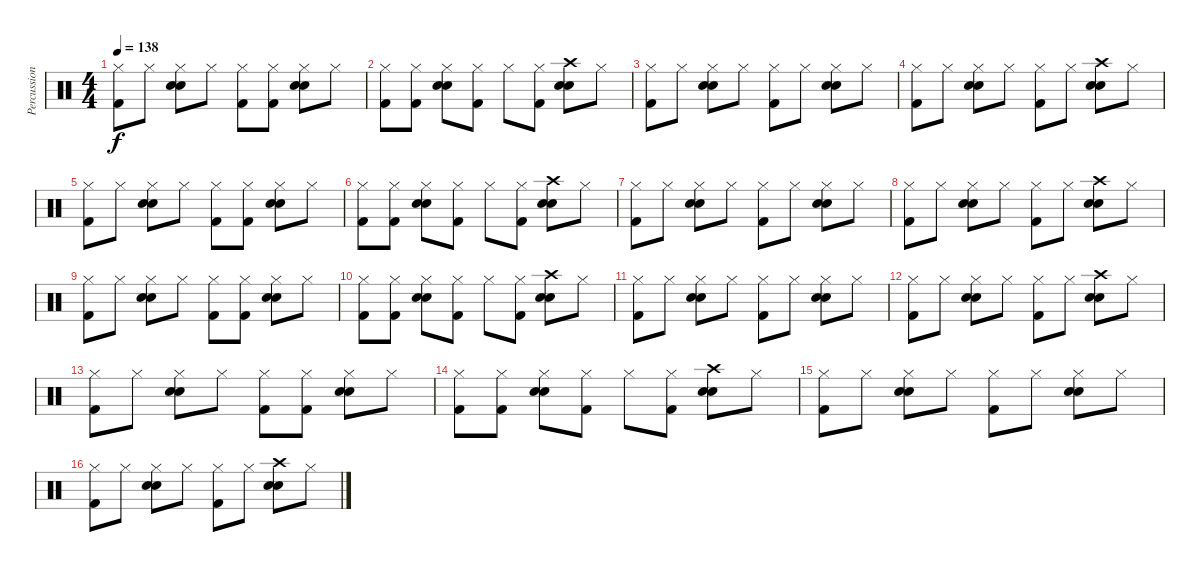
\track ("Percussions" "Percussion") {instrument percussion}
\staff {score}
\articulation defaults
\ts (4 4)
\tempo 138
\clef neutral
\ks c
("Hi-Hat (closed)" "Kick (hit) 2").8{dy f} "Hi-Hat (closed)".8 ("Hi-Hat (closed)" "Snare (hit) 2" "Electric Snare (hit)").8 "Hi-Hat (closed)".8 ("Hi-Hat (closed)" "Kick (hit) 2").8 ("Hi-Hat (closed)" "Kick (hit) 2").8 ("Hi-Hat (closed)" "Snare (hit) 2" "Electric Snare (hit)").8 "Hi-Hat (closed)".8 |
("Hi-Hat (closed)" "Kick (hit) 2").8 ("Hi-Hat (closed)" "Kick (hit) 2").8 ("Hi-Hat (closed)" "Snare (hit) 2" "Electric Snare (hit)").8 ("Hi-Hat (closed)" "Kick (hit) 2").8 "Hi-Hat (closed)".8 ("Hi-Hat (closed)" "Kick (hit) 2").8 ("Crash high (hit)" "Snare (hit) 2" "Electric Snare (hit)").8 "Hi-Hat (closed)".8 |
("Hi-Hat (closed)" "Kick (hit) 2").8 "Hi-Hat (closed)".8 ("Hi-Hat (closed)" "Snare (hit) 2" "Electric Snare (hit)").8 "Hi-Hat (closed)".8 ("Hi-Hat (closed)" "Kick (hit) 2").8 "Hi-Hat (closed)".8 ("Hi-Hat (closed)" "Snare (hit) 2" "Electric Snare (hit)").8 "Hi-Hat (closed)".8 |
("Hi-Hat (closed)" "Kick (hit) 2").8 "Hi-Hat (closed)".8 ("Hi-Hat (closed)" "Snare (hit) 2" "Electric Snare (hit)").8 "Hi-Hat (closed)".8 ("Hi-Hat (closed)" "Kick (hit) 2").8 "Hi-Hat (closed)".8 ("Crash high (hit)" "Snare (hit) 2" "Electric Snare (hit)").8 "Hi-Hat (closed)".8 |
("Hi-Hat (closed)" "Kick (hit) 2").8 "Hi-Hat (closed)".8 ("Hi-Hat (closed)" "Snare (hit) 2" "Electric Snare (hit)").8 "Hi-Hat (closed)".8 ("Hi-Hat (closed)" "Kick (hit) 2").8 ("Hi-Hat (closed)" "Kick (hit) 2").8 ("Hi-Hat (closed)" "Snare (hit) 2" "Electric Snare (hit)").8 "Hi-Hat (closed)".8 |
("Hi-Hat (closed)" "Kick (hit) 2").8 ("Hi-Hat (closed)" "Kick (hit) 2").8 ("Hi-Hat (closed)" "Snare (hit) 2" "Electric Snare (hit)").8 ("Hi-Hat (closed)" "Kick (hit) 2").8 "Hi-Hat (closed)".8 ("Hi-Hat (closed)" "Kick (hit) 2").8 ("Crash high (hit)" "Snare (hit) 2" "Electric Snare (hit)").8 "Hi-Hat (closed)".8 |
("Hi-Hat (closed)" "Kick (hit) 2").8 "Hi-Hat (closed)".8 ("Hi-Hat (closed)" "Snare (hit) 2" "Electric Snare (hit)").8 "Hi-Hat (closed)".8 ("Hi-Hat (closed)" "Kick (hit) 2").8 "Hi-Hat (closed)".8 ("Hi-Hat (closed)" "Snare (hit) 2" "Electric Snare (hit)").8 "Hi-Hat (closed)".8 |
("Hi-Hat (closed)" "Kick (hit) 2").8 "Hi-Hat (closed)".8 ("Hi-Hat (closed)" "Snare (hit) 2" "Electric Snare (hit)").8 "Hi-Hat (closed)".8 ("Hi-Hat (closed)" "Kick (hit) 2").8 "Hi-Hat (closed)".8 ("Crash high (hit)" "Snare (hit) 2" "Electric Snare (hit)").8 "Hi-Hat (closed)".8 |
("Hi-Hat (closed)" "Kick (hit) 2").8 "Hi-Hat (closed)".8 ("Hi-Hat (closed)" "Snare (hit) 2" "Electric Snare (hit)").8 "Hi-Hat (closed)".8 ("Hi-Hat (closed)" "Kick (hit) 2").8 ("Hi-Hat (closed)" "Kick (hit) 2").8 ("Hi-Hat (closed)" "Snare (hit) 2" "Electric Snare (hit)").8 "Hi-Hat (closed)".8 |
("Hi-Hat (closed)" "Kick (hit) 2").8 ("Hi-Hat (closed)" "Kick (hit) 2").8 ("Hi-Hat (closed)" "Snare (hit) 2" "Electric Snare (hit)").8 ("Hi-Hat (closed)" "Kick (hit) 2").8 "Hi-Hat (closed)".8 ("Hi-Hat (closed)" "Kick (hit) 2").8 ("Crash high (hit)" "Snare (hit) 2" "Electric Snare (hit)").8 "Hi-Hat (closed)".8 |
("Hi-Hat (closed)" "Kick (hit) 2").8 "Hi-Hat (closed)".8 ("Hi-Hat (closed)" "Snare (hit) 2" "Electric Snare (hit)").8 "Hi-Hat (closed)".8 ("Hi-Hat (closed)" "Kick (hit) 2").8 "Hi-Hat (closed)".8 ("Hi-Hat (closed)" "Snare (hit) 2" "Electric Snare (hit)").8 "Hi-Hat (closed)".8 |
("Hi-Hat (closed)" "Kick (hit) 2").8 "Hi-Hat (closed)".8 ("Hi-Hat (closed)" "Snare (hit) 2" "Electric Snare (hit)").8 "Hi-Hat (closed)".8 ("Hi-Hat (closed)" "Kick (hit) 2").8 "Hi-Hat (closed)".8 ("Crash high (hit)" "Snare (hit) 2" "Electric Snare (hit)").8 "Hi-Hat (closed)".8 |
("Hi-Hat (closed)" "Kick (hit) 2").8 "Hi-Hat (closed)".8 ("Hi-Hat (closed)" "Snare (hit) 2" "Electric Snare (hit)").8 "Hi-Hat (closed)".8 ("Hi-Hat (closed)" "Kick (hit) 2").8 ("Hi-Hat (closed)" "Kick (hit) 2").8 ("Hi-Hat (closed)" "Snare (hit) 2" "Electric Snare (hit)").8 "Hi-Hat (closed)".8 |
("Hi-Hat (closed)" "Kick (hit) 2").8 ("Hi-Hat (closed)" "Kick (hit) 2").8 ("Hi-Hat (closed)" "Snare (hit) 2" "Electric Snare (hit)").8 ("Hi-Hat (closed)" "Kick (hit) 2").8 "Hi-Hat (closed)".8 ("Hi-Hat (closed)" "Kick (hit) 2").8 ("Crash high (hit)" "Snare (hit) 2" "Electric Snare (hit)").8 "Hi-Hat (closed)".8 |
("Hi-Hat (closed)" "Kick (hit) 2").8 "Hi-Hat (closed)".8 ("Hi-Hat (closed)" "Snare (hit) 2" "Electric Snare (hit)").8 "Hi-Hat (closed)".8 ("Hi-Hat (closed)" "Kick (hit) 2").8 "Hi-Hat (closed)".8 ("Hi-Hat (closed)" "Snare (hit) 2" "Electric Snare (hit)").8 "Hi-Hat (closed)".8 |
("Hi-Hat (closed)" "Kick (hit) 2").8 "Hi-Hat (closed)".8 ("Hi-Hat (closed)" "Snare (hit) 2" "Electric Snare (hit)").8 "Hi-Hat (closed)".8 ("Hi-Hat (closed)" "Kick (hit) 2").8 "Hi-Hat (closed)".8 ("Crash high (hit)" "Snare (hit) 2" "Electric Snare (hit)").8 "Hi-Hat (closed)".8
